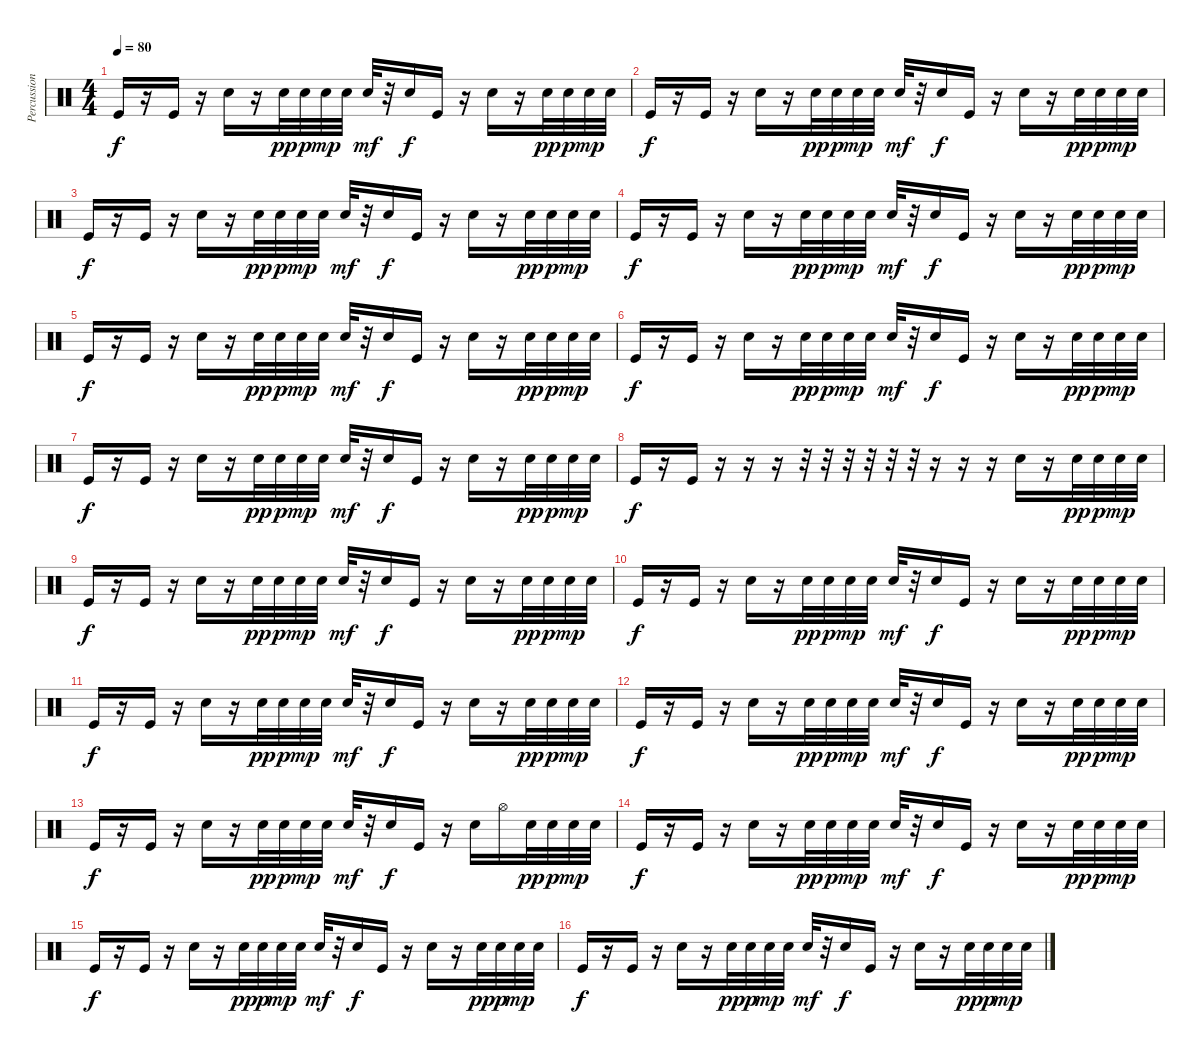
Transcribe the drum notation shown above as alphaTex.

\track ("Percussions" "Percussion") {instrument percussion}
\staff {score}
\articulation defaults
\ts (4 4)
\tempo 80
\clef neutral
\ks c "Kick (hit)".16{dy f volume 0}
r.16{volume 11} "Kick (hit)".16 r.16 "Snare (hit) 2".16 r.16 "Snare (hit) 2".32{dy pp} "Snare (hit) 2".32{dy p} "Snare (hit) 2".32{dy mp} "Snare (hit) 2".32 "Snare (hit) 2".32{dy mf} r.32 "Electric Snare (hit)".16{dy f} "Kick (hit)".16 r.16 "Electric Snare (hit)".16 r.16 "Snare (hit) 2".32{dy pp} "Snare (hit) 2".32{dy p} "Snare (hit) 2".32{dy mp} "Snare (hit) 2".32 |
"Kick (hit)".16{dy f} r.16 "Kick (hit)".16 r.16 "Snare (hit) 2".16 r.16 "Snare (hit) 2".32{dy pp} "Snare (hit) 2".32{dy p} "Snare (hit) 2".32{dy mp} "Snare (hit) 2".32 "Snare (hit) 2".32{dy mf} r.32 "Electric Snare (hit)".16{dy f} "Kick (hit)".16 r.16 "Electric Snare (hit)".16 r.16 "Snare (hit) 2".32{dy pp} "Snare (hit) 2".32{dy p} "Snare (hit) 2".32{dy mp} "Snare (hit) 2".32 |
"Kick (hit)".16{dy f} r.16 "Kick (hit)".16 r.16 "Snare (hit) 2".16 r.16 "Snare (hit) 2".32{dy pp} "Snare (hit) 2".32{dy p} "Snare (hit) 2".32{dy mp} "Snare (hit) 2".32 "Snare (hit) 2".32{dy mf} r.32 "Electric Snare (hit)".16{dy f} "Kick (hit)".16 r.16 "Electric Snare (hit)".16 r.16 "Snare (hit) 2".32{dy pp} "Snare (hit) 2".32{dy p} "Snare (hit) 2".32{dy mp} "Snare (hit) 2".32 |
"Kick (hit)".16{dy f} r.16 "Kick (hit)".16 r.16 "Snare (hit) 2".16 r.16 "Snare (hit) 2".32{dy pp} "Snare (hit) 2".32{dy p} "Snare (hit) 2".32{dy mp} "Snare (hit) 2".32 "Snare (hit) 2".32{dy mf} r.32 "Electric Snare (hit)".16{dy f} "Kick (hit)".16 r.16 "Electric Snare (hit)".16 r.16 "Snare (hit) 2".32{dy pp} "Snare (hit) 2".32{dy p} "Snare (hit) 2".32{dy mp} "Snare (hit) 2".32 |
"Kick (hit)".16{dy f} r.16 "Kick (hit)".16 r.16 "Snare (hit) 2".16 r.16 "Snare (hit) 2".32{dy pp} "Snare (hit) 2".32{dy p} "Snare (hit) 2".32{dy mp} "Snare (hit) 2".32 "Snare (hit) 2".32{dy mf} r.32 "Electric Snare (hit)".16{dy f} "Kick (hit)".16 r.16 "Electric Snare (hit)".16 r.16 "Snare (hit) 2".32{dy pp} "Snare (hit) 2".32{dy p} "Snare (hit) 2".32{dy mp} "Snare (hit) 2".32 |
"Kick (hit)".16{dy f} r.16 "Kick (hit)".16 r.16 "Snare (hit) 2".16 r.16 "Snare (hit) 2".32{dy pp} "Snare (hit) 2".32{dy p} "Snare (hit) 2".32{dy mp} "Snare (hit) 2".32 "Snare (hit) 2".32{dy mf} r.32 "Electric Snare (hit)".16{dy f} "Kick (hit)".16 r.16 "Electric Snare (hit)".16 r.16 "Snare (hit) 2".32{dy pp} "Snare (hit) 2".32{dy p} "Snare (hit) 2".32{dy mp} "Snare (hit) 2".32 |
"Kick (hit)".16{dy f} r.16 "Kick (hit)".16 r.16 "Snare (hit) 2".16 r.16 "Snare (hit) 2".32{dy pp} "Snare (hit) 2".32{dy p} "Snare (hit) 2".32{dy mp} "Snare (hit) 2".32 "Snare (hit) 2".32{dy mf} r.32 "Electric Snare (hit)".16{dy f} "Kick (hit)".16 r.16 "Electric Snare (hit)".16 r.16 "Snare (hit) 2".32{dy pp} "Snare (hit) 2".32{dy p} "Snare (hit) 2".32{dy mp} "Snare (hit) 2".32 |
"Kick (hit)".16{dy f} r.16 "Kick (hit)".16 r.16 r.16 r.16 r.32 r.32 r.32 r.32 r.32 r.32 r.16 r.16 r.16 "Electric Snare (hit)".16 r.16 "Snare (hit) 2".32{dy pp} "Snare (hit) 2".32{dy p} "Snare (hit) 2".32{dy mp} "Snare (hit) 2".32 |
"Kick (hit)".16{dy f} r.16 "Kick (hit)".16 r.16 "Snare (hit) 2".16 r.16 "Snare (hit) 2".32{dy pp} "Snare (hit) 2".32{dy p} "Snare (hit) 2".32{dy mp} "Snare (hit) 2".32 "Snare (hit) 2".32{dy mf} r.32 "Electric Snare (hit)".16{dy f} "Kick (hit)".16 r.16 "Electric Snare (hit)".16 r.16 "Snare (hit) 2".32{dy pp} "Snare (hit) 2".32{dy p} "Snare (hit) 2".32{dy mp} "Snare (hit) 2".32 |
"Kick (hit)".16{dy f} r.16 "Kick (hit)".16 r.16 "Snare (hit) 2".16 r.16 "Snare (hit) 2".32{dy pp} "Snare (hit) 2".32{dy p} "Snare (hit) 2".32{dy mp} "Snare (hit) 2".32 "Snare (hit) 2".32{dy mf} r.32 "Electric Snare (hit)".16{dy f} "Kick (hit)".16 r.16 "Electric Snare (hit)".16 r.16 "Snare (hit) 2".32{dy pp} "Snare (hit) 2".32{dy p} "Snare (hit) 2".32{dy mp} "Snare (hit) 2".32 |
"Kick (hit)".16{dy f} r.16 "Kick (hit)".16 r.16 "Snare (hit) 2".16 r.16 "Snare (hit) 2".32{dy pp} "Snare (hit) 2".32{dy p} "Snare (hit) 2".32{dy mp} "Snare (hit) 2".32 "Snare (hit) 2".32{dy mf} r.32 "Electric Snare (hit)".16{dy f} "Kick (hit)".16 r.16 "Electric Snare (hit)".16 r.16 "Snare (hit) 2".32{dy pp} "Snare (hit) 2".32{dy p} "Snare (hit) 2".32{dy mp} "Snare (hit) 2".32 |
"Kick (hit)".16{dy f} r.16 "Kick (hit)".16 r.16 "Snare (hit) 2".16 r.16 "Snare (hit) 2".32{dy pp} "Snare (hit) 2".32{dy p} "Snare (hit) 2".32{dy mp} "Snare (hit) 2".32 "Snare (hit) 2".32{dy mf} r.32 "Electric Snare (hit)".16{dy f} "Kick (hit)".16 r.16 "Electric Snare (hit)".16 r.16 "Snare (hit) 2".32{dy pp} "Snare (hit) 2".32{dy p} "Snare (hit) 2".32{dy mp} "Snare (hit) 2".32 |
"Kick (hit)".16{dy f} r.16 "Kick (hit)".16 r.16 "Snare (hit) 2".16 r.16 "Snare (hit) 2".32{dy pp} "Snare (hit) 2".32{dy p} "Snare (hit) 2".32{dy mp} "Snare (hit) 2".32 "Snare (hit) 2".32{dy mf} r.32 "Electric Snare (hit)".16{dy f} "Kick (hit)".16 r.16 "Electric Snare (hit)".16 "Hi-Hat (open)".16 "Snare (hit) 2".32{dy pp} "Snare (hit) 2".32{dy p} "Snare (hit) 2".32{dy mp} "Snare (hit) 2".32 |
"Kick (hit)".16{dy f} r.16 "Kick (hit)".16 r.16 "Snare (hit) 2".16 r.16 "Snare (hit) 2".32{dy pp} "Snare (hit) 2".32{dy p} "Snare (hit) 2".32{dy mp} "Snare (hit) 2".32 "Snare (hit) 2".32{dy mf} r.32 "Electric Snare (hit)".16{dy f} "Kick (hit)".16 r.16 "Electric Snare (hit)".16 r.16 "Snare (hit) 2".32{dy pp} "Snare (hit) 2".32{dy p} "Snare (hit) 2".32{dy mp} "Snare (hit) 2".32 |
"Kick (hit)".16{dy f} r.16 "Kick (hit)".16 r.16 "Snare (hit) 2".16 r.16 "Snare (hit) 2".32{dy pp} "Snare (hit) 2".32{dy p} "Snare (hit) 2".32{dy mp} "Snare (hit) 2".32 "Snare (hit) 2".32{dy mf} r.32 "Electric Snare (hit)".16{dy f} "Kick (hit)".16 r.16 "Electric Snare (hit)".16 r.16 "Snare (hit) 2".32{dy pp} "Snare (hit) 2".32{dy p} "Snare (hit) 2".32{dy mp} "Snare (hit) 2".32 |
"Kick (hit)".16{dy f} r.16 "Kick (hit)".16 r.16 "Snare (hit) 2".16 r.16 "Snare (hit) 2".32{dy pp} "Snare (hit) 2".32{dy p} "Snare (hit) 2".32{dy mp} "Snare (hit) 2".32 "Snare (hit) 2".32{dy mf} r.32 "Electric Snare (hit)".16{dy f} "Kick (hit)".16 r.16 "Electric Snare (hit)".16 r.16 "Snare (hit) 2".32{dy pp} "Snare (hit) 2".32{dy p} "Snare (hit) 2".32{dy mp} "Snare (hit) 2".32
